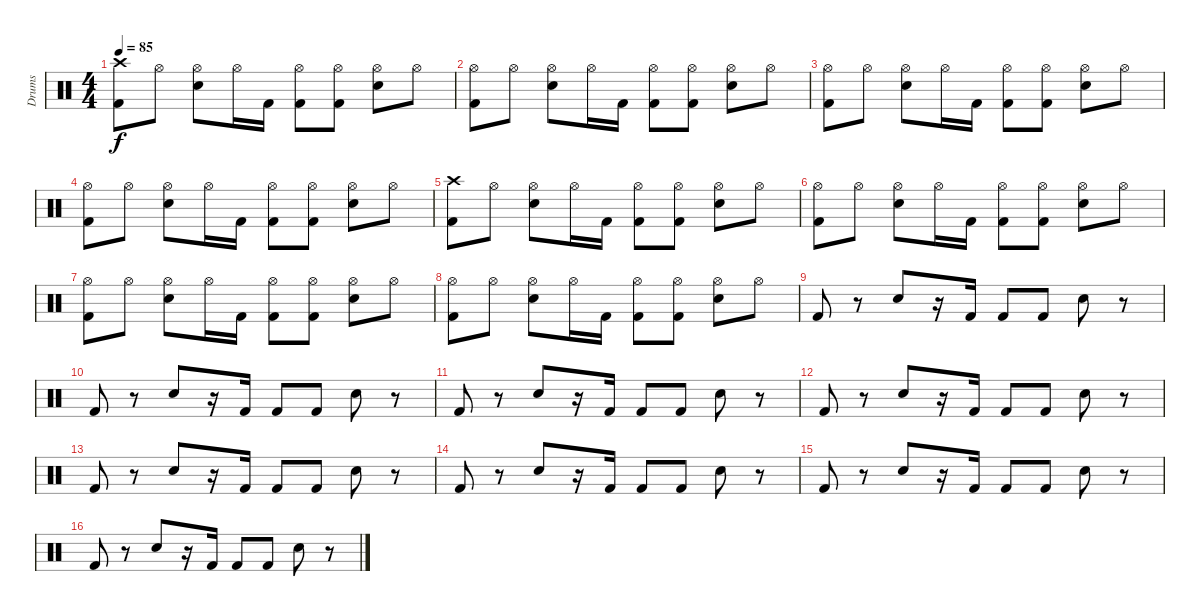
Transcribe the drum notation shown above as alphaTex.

\track ("Drums" "Drums") {instrument percussion}
\staff {score}
\articulation defaults
\ts (4 4)
\tempo 85
\clef neutral
\ks c
("Crash high (hit)" "Kick (hit) 2").8{dy f} "Hi-Hat (open)".8 ("Hi-Hat (open)" "Snare (hit) 2").8 "Hi-Hat (open)".16 "Kick (hit) 2".16 ("Hi-Hat (open)" "Kick (hit) 2").8 ("Hi-Hat (open)" "Kick (hit) 2").8 ("Hi-Hat (open)" "Snare (hit) 2").8 "Hi-Hat (open)".8 |
("Hi-Hat (open)" "Kick (hit) 2").8 "Hi-Hat (open)".8 ("Hi-Hat (open)" "Snare (hit) 2").8 "Hi-Hat (open)".16 "Kick (hit) 2".16 ("Hi-Hat (open)" "Kick (hit) 2").8 ("Hi-Hat (open)" "Kick (hit) 2").8 ("Hi-Hat (open)" "Snare (hit) 2").8 "Hi-Hat (open)".8 |
("Hi-Hat (open)" "Kick (hit) 2").8 "Hi-Hat (open)".8 ("Hi-Hat (open)" "Snare (hit) 2").8 "Hi-Hat (open)".16 "Kick (hit) 2".16 ("Hi-Hat (open)" "Kick (hit) 2").8 ("Hi-Hat (open)" "Kick (hit) 2").8 ("Hi-Hat (open)" "Snare (hit) 2").8 "Hi-Hat (open)".8 |
("Hi-Hat (open)" "Kick (hit) 2").8 "Hi-Hat (open)".8 ("Hi-Hat (open)" "Snare (hit) 2").8 "Hi-Hat (open)".16 "Kick (hit) 2".16 ("Hi-Hat (open)" "Kick (hit) 2").8 ("Hi-Hat (open)" "Kick (hit) 2").8 ("Hi-Hat (open)" "Snare (hit) 2").8 "Hi-Hat (open)".8 |
("Crash high (hit)" "Kick (hit) 2").8 "Hi-Hat (open)".8 ("Hi-Hat (open)" "Snare (hit) 2").8 "Hi-Hat (open)".16 "Kick (hit) 2".16 ("Hi-Hat (open)" "Kick (hit) 2").8 ("Hi-Hat (open)" "Kick (hit) 2").8 ("Hi-Hat (open)" "Snare (hit) 2").8 "Hi-Hat (open)".8 |
("Hi-Hat (open)" "Kick (hit) 2").8 "Hi-Hat (open)".8 ("Hi-Hat (open)" "Snare (hit) 2").8 "Hi-Hat (open)".16 "Kick (hit) 2".16 ("Hi-Hat (open)" "Kick (hit) 2").8 ("Hi-Hat (open)" "Kick (hit) 2").8 ("Hi-Hat (open)" "Snare (hit) 2").8 "Hi-Hat (open)".8 |
("Hi-Hat (open)" "Kick (hit) 2").8 "Hi-Hat (open)".8 ("Hi-Hat (open)" "Snare (hit) 2").8 "Hi-Hat (open)".16 "Kick (hit) 2".16 ("Hi-Hat (open)" "Kick (hit) 2").8 ("Hi-Hat (open)" "Kick (hit) 2").8 ("Hi-Hat (open)" "Snare (hit) 2").8 "Hi-Hat (open)".8 |
("Hi-Hat (open)" "Kick (hit) 2").8 "Hi-Hat (open)".8 ("Hi-Hat (open)" "Snare (hit) 2").8 "Hi-Hat (open)".16 "Kick (hit) 2".16 ("Hi-Hat (open)" "Kick (hit) 2").8 ("Hi-Hat (open)" "Kick (hit) 2").8 ("Hi-Hat (open)" "Snare (hit) 2").8 "Hi-Hat (open)".8 |
"Kick (hit) 2".8 r.8 "Snare (hit) 2".8 r.16 "Kick (hit) 2".16 "Kick (hit) 2".8 "Kick (hit) 2".8 "Snare (hit) 2".8 r.8 |
"Kick (hit) 2".8 r.8 "Snare (hit) 2".8 r.16 "Kick (hit) 2".16 "Kick (hit) 2".8 "Kick (hit) 2".8 "Snare (hit) 2".8 r.8 |
"Kick (hit) 2".8 r.8 "Snare (hit) 2".8 r.16 "Kick (hit) 2".16 "Kick (hit) 2".8 "Kick (hit) 2".8 "Snare (hit) 2".8 r.8 |
"Kick (hit) 2".8 r.8 "Snare (hit) 2".8 r.16 "Kick (hit) 2".16 "Kick (hit) 2".8 "Kick (hit) 2".8 "Snare (hit) 2".8 r.8 |
"Kick (hit) 2".8 r.8 "Snare (hit) 2".8 r.16 "Kick (hit) 2".16 "Kick (hit) 2".8 "Kick (hit) 2".8 "Snare (hit) 2".8 r.8 |
"Kick (hit) 2".8 r.8 "Snare (hit) 2".8 r.16 "Kick (hit) 2".16 "Kick (hit) 2".8 "Kick (hit) 2".8 "Snare (hit) 2".8 r.8 |
"Kick (hit) 2".8 r.8 "Snare (hit) 2".8 r.16 "Kick (hit) 2".16 "Kick (hit) 2".8 "Kick (hit) 2".8 "Snare (hit) 2".8 r.8 |
"Kick (hit) 2".8 r.8 "Snare (hit) 2".8 r.16 "Kick (hit) 2".16 "Kick (hit) 2".8 "Kick (hit) 2".8 "Snare (hit) 2".8 r.8
